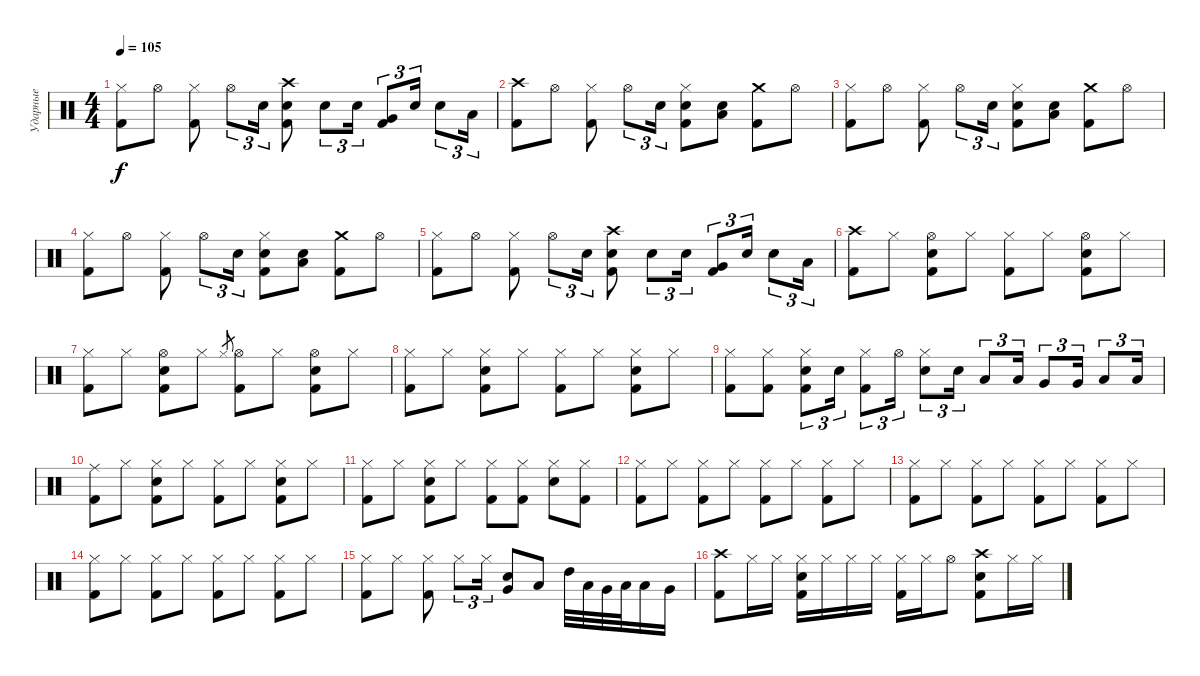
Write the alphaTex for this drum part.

\track ("Ударные" "Ударные") {instrument percussion}
\staff {score}
\articulation defaults
\ts (4 4)
\tempo 105
\clef neutral
\ks c
("Hi-Hat (closed)" "Kick (hit) 2").8{dy f} "Hi-Hat (open)".8 ("Hi-Hat (closed)" "Kick (hit) 2").8 "Hi-Hat (open)".8{tu (3 2)} "Electric Snare (hit)".16{tu (3 2)} ("Crash high (hit)" "Electric Snare (hit)" "Kick (hit) 2").8 "Electric Snare (hit)".8{tu (3 2)} "Electric Snare (hit)".16{tu (3 2)} ("Very Low Tom (hit)" "Kick (hit) 2").8{tu (3 2)} "Electric Snare (hit)".16{tu (3 2)} "Electric Snare (hit)".8{tu (3 2)} "Low Floor Tom (hit)".16{tu (3 2)} |
("Crash high (hit)" "Kick (hit) 2").8 "Hi-Hat (open)".8 ("Hi-Hat (closed)" "Kick (hit) 2").8 "Hi-Hat (open)".8{tu (3 2)} "Electric Snare (hit)".16{tu (3 2)} ("Hi-Hat (closed)" "Electric Snare (hit)" "Kick (hit) 2").8 ("Electric Snare (hit)" "Low Floor Tom (hit)").8 ("Crash medium (hit)" "Kick (hit) 2").8 "Hi-Hat (open)".8 |
("Hi-Hat (closed)" "Kick (hit) 2").8 "Hi-Hat (open)".8 ("Hi-Hat (closed)" "Kick (hit) 2").8 "Hi-Hat (open)".8{tu (3 2)} "Electric Snare (hit)".16{tu (3 2)} ("Hi-Hat (closed)" "Electric Snare (hit)" "Kick (hit) 2").8 ("Electric Snare (hit)" "Low Floor Tom (hit)").8 ("Crash medium (hit)" "Kick (hit) 2").8 "Hi-Hat (open)".8 |
("Hi-Hat (closed)" "Kick (hit) 2").8 "Hi-Hat (open)".8 ("Hi-Hat (closed)" "Kick (hit) 2").8 "Hi-Hat (open)".8{tu (3 2)} "Electric Snare (hit)".16{tu (3 2)} ("Hi-Hat (closed)" "Electric Snare (hit)" "Kick (hit) 2").8 ("Electric Snare (hit)" "Low Floor Tom (hit)").8 ("Crash medium (hit)" "Kick (hit) 2").8 "Hi-Hat (open)".8 |
("Hi-Hat (closed)" "Kick (hit) 2").8 "Hi-Hat (open)".8 ("Hi-Hat (closed)" "Kick (hit) 2").8 "Hi-Hat (open)".8{tu (3 2)} "Electric Snare (hit)".16{tu (3 2)} ("Crash high (hit)" "Electric Snare (hit)" "Kick (hit) 2").8 "Electric Snare (hit)".8{tu (3 2)} "Electric Snare (hit)".16{tu (3 2)} ("Very Low Tom (hit)" "Kick (hit) 2").8{tu (3 2)} "Electric Snare (hit)".16{tu (3 2)} "Electric Snare (hit)".8{tu (3 2)} "Low Floor Tom (hit)".16{tu (3 2)} |
("Crash high (hit)" "Kick (hit) 2").8 "Hi-Hat (closed)".8 ("Hi-Hat (open)" "Kick (hit) 2" "Electric Snare (hit)").8 "Hi-Hat (closed)".8 ("Hi-Hat (closed)" "Kick (hit) 2").8 "Hi-Hat (closed)".8 ("Hi-Hat (open)" "Kick (hit) 2" "Electric Snare (hit)").8 "Hi-Hat (closed)".8 |
("Hi-Hat (closed)" "Kick (hit) 2").8 "Hi-Hat (closed)".8 ("Hi-Hat (open)" "Kick (hit) 2" "Electric Snare (hit)").8 "Hi-Hat (closed)".8 "Hi-Hat (closed)".8{gr} ("Hi-Hat (open)" "Kick (hit) 2").8 "Hi-Hat (closed)".8 ("Hi-Hat (open)" "Kick (hit) 2" "Electric Snare (hit)").8 "Hi-Hat (closed)".8 |
("Hi-Hat (closed)" "Kick (hit) 2").8 "Hi-Hat (closed)".8 ("Hi-Hat (closed)" "Kick (hit) 2" "Electric Snare (hit)").8 "Hi-Hat (closed)".8 ("Hi-Hat (closed)" "Kick (hit) 2").8 "Hi-Hat (closed)".8 ("Hi-Hat (closed)" "Kick (hit) 2" "Electric Snare (hit)").8 "Hi-Hat (closed)".8 |
("Hi-Hat (closed)" "Kick (hit) 2").8 ("Hi-Hat (closed)" "Kick (hit) 2").8 ("Hi-Hat (closed)" "Kick (hit) 2" "Electric Snare (hit)").8{tu (3 2)} "Electric Snare (hit)".16{tu (3 2)} ("Hi-Hat (closed)" "Kick (hit) 2").8{tu (3 2)} "Hi-Hat (open)".16{tu (3 2)} ("Hi-Hat (closed)" "Electric Snare (hit)").8{tu (3 2)} "Electric Snare (hit)".16{tu (3 2)} "Low Tom (hit)".8{tu (3 2)} "Low Tom (hit)".16{tu (3 2)} "Very Low Tom (hit)".8{tu (3 2)} "Very Low Tom (hit)".16{tu (3 2)} "Low Floor Tom (hit)".8{tu (3 2)} "Low Floor Tom (hit)".16{tu (3 2)} |
("Ride (middle)" "Kick (hit) 2").8 "Hi-Hat (closed)".8 ("Hi-Hat (closed)" "Electric Snare (hit)" "Kick (hit) 2").8 "Hi-Hat (closed)".8 ("Hi-Hat (closed)" "Kick (hit) 2").8 "Hi-Hat (closed)".8 ("Hi-Hat (closed)" "Electric Snare (hit)" "Kick (hit) 2").8 "Hi-Hat (closed)".8 |
("Hi-Hat (closed)" "Kick (hit) 2").8 "Hi-Hat (closed)".8 ("Hi-Hat (closed)" "Electric Snare (hit)" "Kick (hit) 2").8 "Hi-Hat (closed)".8 ("Hi-Hat (closed)" "Kick (hit) 2").8 ("Hi-Hat (closed)" "Kick (hit) 2").8 ("Hi-Hat (closed)" "Electric Snare (hit)").8 ("Hi-Hat (closed)" "Kick (hit) 2").8 |
("Hi-Hat (closed)" "Kick (hit) 2").8 "Hi-Hat (closed)".8 ("Hi-Hat (closed)" "Kick (hit) 2").8 "Hi-Hat (closed)".8 ("Hi-Hat (closed)" "Kick (hit) 2").8 "Hi-Hat (closed)".8 ("Hi-Hat (closed)" "Kick (hit) 2").8 "Hi-Hat (closed)".8 |
("Hi-Hat (closed)" "Kick (hit) 2").8 "Hi-Hat (closed)".8 ("Hi-Hat (closed)" "Kick (hit) 2").8 "Hi-Hat (closed)".8 ("Hi-Hat (closed)" "Kick (hit) 2").8 "Hi-Hat (closed)".8 ("Hi-Hat (closed)" "Kick (hit) 2").8 "Hi-Hat (closed)".8 |
("Hi-Hat (closed)" "Kick (hit) 2").8 "Hi-Hat (closed)".8 ("Hi-Hat (closed)" "Kick (hit) 2").8 "Hi-Hat (closed)".8 ("Hi-Hat (closed)" "Kick (hit) 2").8 "Hi-Hat (closed)".8 ("Hi-Hat (closed)" "Kick (hit) 2").8 "Hi-Hat (closed)".8 |
("Hi-Hat (closed)" "Kick (hit) 2").8 "Hi-Hat (closed)".8 ("Hi-Hat (closed)" "Kick (hit) 2").8 "Hi-Hat (closed)".8{tu (3 2)} "Hi-Hat (closed)".16{tu (3 2)} ("Very Low Tom (hit)" "Electric Snare (hit)").8 "Low Tom (hit)".8 "High Tom (hit)".32 "Low Tom (hit)".32 "Very Low Tom (hit)".32 "Low Floor Tom (hit)".32 "Low Tom (hit)".16 "Very Low Tom (hit)".16 |
("Crash high (hit)" "Kick (hit) 2").8 "Hi-Hat (closed)".16 "Hi-Hat (closed)".16 ("Hi-Hat (closed)" "Kick (hit) 2" "Electric Snare (hit)").16 "Hi-Hat (closed)".16 "Hi-Hat (closed)".16 "Hi-Hat (closed)".16 ("Hi-Hat (closed)" "Kick (hit) 2").16 "Hi-Hat (closed)".16 "Hi-Hat (open)".8 ("Crash high (hit)" "Kick (hit) 2" "Electric Snare (hit)").8 "Hi-Hat (closed)".16 "Hi-Hat (closed)".16
